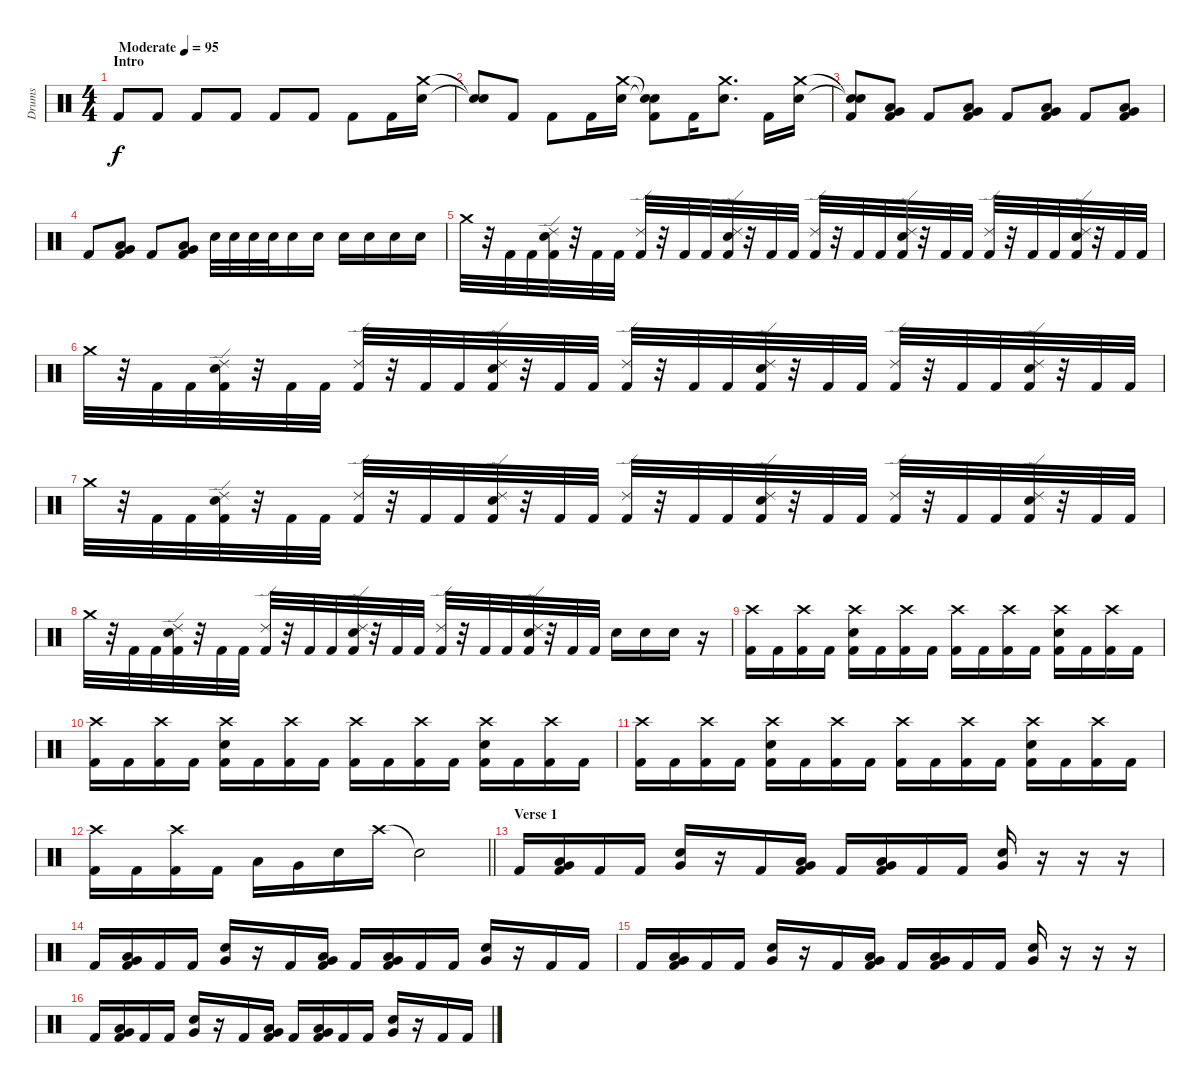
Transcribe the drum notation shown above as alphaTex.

\track ("Drums" "Drums") {instrument percussion}
\staff {score}
\articulation defaults
\ts (4 4)
\section ("" "Intro")
\tempo (95 "Moderate")
\clef neutral
\ks c "Kick (hit) 2".8{dy f} "Kick (hit) 2".8 "Kick (hit) 2".8 "Kick (hit) 2".8 "Kick (hit) 2".8 "Kick (hit) 2".8 "Kick (hit) 2".8 "Kick (hit) 2".16
("Crash medium (hit)" "Electric Snare (hit)").16 |
("Snare (hit)"{t} "Snare (hit)"{t}).8 "Kick (hit) 2".8 "Kick (hit) 2".8 "Kick (hit) 2".16 ("Crash medium (hit)" "Electric Snare (hit)").16 ("Snare (hit)"{t} "Snare (hit)"{t} "Kick (hit) 2").8 "Kick (hit) 2".16 ("Crash medium (hit)" "Electric Snare (hit)").8{d} "Kick (hit) 2".16 ("Crash medium (hit)" "Electric Snare (hit)").16 |
("Snare (hit)"{t} "Snare (hit)"{t} "Kick (hit) 2").8 ("Low Floor Tom (hit)" "Very Low Tom (hit)" "Kick (hit) 2").8 "Kick (hit) 2".8 ("Low Floor Tom (hit)" "Very Low Tom (hit)" "Kick (hit) 2").8 "Kick (hit) 2".8 ("Low Floor Tom (hit)" "Very Low Tom (hit)" "Kick (hit) 2").8 "Kick (hit) 2".8 ("Low Floor Tom (hit)" "Very Low Tom (hit)" "Kick (hit) 2").8 |
"Kick (hit) 2".8 ("Low Floor Tom (hit)" "Very Low Tom (hit)" "Kick (hit) 2").8 "Kick (hit) 2".8 ("Low Floor Tom (hit)" "Very Low Tom (hit)" "Kick (hit) 2").8 "Electric Snare (hit)".32 "Electric Snare (hit)".32 "Electric Snare (hit)".32 "Electric Snare (hit)".32 "Electric Snare (hit)".16 "Electric Snare (hit)".16 "Electric Snare (hit)".16 "Electric Snare (hit)".16 "Electric Snare (hit)".16 "Electric Snare (hit)".16 |
"Crash medium (hit)".32 r.32 "Kick (hit) 2".32 "Kick (hit) 2".32 ("Ride (edge) 2" "Electric Snare (hit)" "Kick (hit) 2").32 r.32 "Kick (hit) 2".32 "Kick (hit) 2".32 ("Ride (edge) 2" "Kick (hit) 2").32 r.32 "Kick (hit) 2".32 "Kick (hit) 2".32 ("Ride (edge) 2" "Electric Snare (hit)" "Kick (hit) 2").32 r.32 "Kick (hit) 2".32 "Kick (hit) 2".32 ("Ride (edge) 2" "Kick (hit) 2").32 r.32 "Kick (hit) 2".32 "Kick (hit) 2".32 ("Ride (edge) 2" "Electric Snare (hit)" "Kick (hit) 2").32 r.32 "Kick (hit) 2".32 "Kick (hit) 2".32 ("Ride (edge) 2" "Kick (hit) 2").32 r.32 "Kick (hit) 2".32 "Kick (hit) 2".32 ("Ride (edge) 2" "Electric Snare (hit)" "Kick (hit) 2").32 r.32 "Kick (hit) 2".32 "Kick (hit) 2".32 |
"Crash medium (hit)".32 r.32 "Kick (hit) 2".32 "Kick (hit) 2".32 ("Ride (edge) 2" "Electric Snare (hit)" "Kick (hit) 2").32 r.32 "Kick (hit) 2".32 "Kick (hit) 2".32 ("Ride (edge) 2" "Kick (hit) 2").32 r.32 "Kick (hit) 2".32 "Kick (hit) 2".32 ("Ride (edge) 2" "Electric Snare (hit)" "Kick (hit) 2").32 r.32 "Kick (hit) 2".32 "Kick (hit) 2".32 ("Ride (edge) 2" "Kick (hit) 2").32 r.32 "Kick (hit) 2".32 "Kick (hit) 2".32 ("Ride (edge) 2" "Electric Snare (hit)" "Kick (hit) 2").32 r.32 "Kick (hit) 2".32 "Kick (hit) 2".32 ("Ride (edge) 2" "Kick (hit) 2").32 r.32 "Kick (hit) 2".32 "Kick (hit) 2".32 ("Ride (edge) 2" "Electric Snare (hit)" "Kick (hit) 2").32 r.32 "Kick (hit) 2".32 "Kick (hit) 2".32 |
"Crash medium (hit)".32 r.32 "Kick (hit) 2".32 "Kick (hit) 2".32 ("Ride (edge) 2" "Electric Snare (hit)" "Kick (hit) 2").32 r.32 "Kick (hit) 2".32 "Kick (hit) 2".32 ("Ride (edge) 2" "Kick (hit) 2").32 r.32 "Kick (hit) 2".32 "Kick (hit) 2".32 ("Ride (edge) 2" "Electric Snare (hit)" "Kick (hit) 2").32 r.32 "Kick (hit) 2".32 "Kick (hit) 2".32 ("Ride (edge) 2" "Kick (hit) 2").32 r.32 "Kick (hit) 2".32 "Kick (hit) 2".32 ("Ride (edge) 2" "Electric Snare (hit)" "Kick (hit) 2").32 r.32 "Kick (hit) 2".32 "Kick (hit) 2".32 ("Ride (edge) 2" "Kick (hit) 2").32 r.32 "Kick (hit) 2".32 "Kick (hit) 2".32 ("Ride (edge) 2" "Electric Snare (hit)" "Kick (hit) 2").32 r.32 "Kick (hit) 2".32 "Kick (hit) 2".32 |
"Crash medium (hit)".32 r.32 "Kick (hit) 2".32 "Kick (hit) 2".32 ("Ride (edge) 2" "Electric Snare (hit)" "Kick (hit) 2").32 r.32 "Kick (hit) 2".32 "Kick (hit) 2".32 ("Ride (edge) 2" "Kick (hit) 2").32 r.32 "Kick (hit) 2".32 "Kick (hit) 2".32 ("Ride (edge) 2" "Electric Snare (hit)" "Kick (hit) 2").32 r.32 "Kick (hit) 2".32 "Kick (hit) 2".32 ("Ride (edge) 2" "Kick (hit) 2").32 r.32 "Kick (hit) 2".32 "Kick (hit) 2".32 ("Ride (edge) 2" "Electric Snare (hit)" "Kick (hit) 2").32 r.32 "Kick (hit) 2".32 "Kick (hit) 2".32 "Electric Snare (hit)".16 "Electric Snare (hit)".16 "Electric Snare (hit)".16 r.16 |
("Crash high (hit)" "Kick (hit) 2").16 "Kick (hit) 2".16 ("Crash high (hit)" "Kick (hit) 2").16 "Kick (hit) 2".16 ("Crash high (hit)" "Electric Snare (hit)" "Kick (hit) 2").16 "Kick (hit) 2".16 ("Crash high (hit)" "Kick (hit) 2").16 "Kick (hit) 2".16 ("Crash high (hit)" "Kick (hit) 2").16 "Kick (hit) 2".16 ("Crash high (hit)" "Kick (hit) 2").16 "Kick (hit) 2".16 ("Crash high (hit)" "Electric Snare (hit)" "Kick (hit) 2").16 "Kick (hit) 2".16 ("Crash high (hit)" "Kick (hit) 2").16 "Kick (hit) 2".16 |
("Crash high (hit)" "Kick (hit) 2").16 "Kick (hit) 2".16 ("Crash high (hit)" "Kick (hit) 2").16 "Kick (hit) 2".16 ("Crash high (hit)" "Electric Snare (hit)" "Kick (hit) 2").16 "Kick (hit) 2".16 ("Crash high (hit)" "Kick (hit) 2").16 "Kick (hit) 2".16 ("Crash high (hit)" "Kick (hit) 2").16 "Kick (hit) 2".16 ("Crash high (hit)" "Kick (hit) 2").16 "Kick (hit) 2".16 ("Crash high (hit)" "Electric Snare (hit)" "Kick (hit) 2").16 "Kick (hit) 2".16 ("Crash high (hit)" "Kick (hit) 2").16 "Kick (hit) 2".16 |
("Crash high (hit)" "Kick (hit) 2").16 "Kick (hit) 2".16 ("Crash high (hit)" "Kick (hit) 2").16 "Kick (hit) 2".16 ("Crash high (hit)" "Electric Snare (hit)" "Kick (hit) 2").16 "Kick (hit) 2".16 ("Crash high (hit)" "Kick (hit) 2").16 "Kick (hit) 2".16 ("Crash high (hit)" "Kick (hit) 2").16 "Kick (hit) 2".16 ("Crash high (hit)" "Kick (hit) 2").16 "Kick (hit) 2".16 ("Crash high (hit)" "Electric Snare (hit)" "Kick (hit) 2").16 "Kick (hit) 2".16 ("Crash high (hit)" "Kick (hit) 2").16 "Kick (hit) 2".16 |
\barLineRight lightlight
("Crash high (hit)" "Kick (hit) 2").16 "Kick (hit) 2".16 ("Crash high (hit)" "Kick (hit) 2").16 "Kick (hit) 2".16 "Low Tom (hit)".16 "Very Low Tom (hit)".16 "Electric Snare (hit)".16 "Crash high (hit)".16 "Snare (hit)"{t}.2 |
\section ("" "Verse 1")
"Kick (hit) 2".16 ("Low Tom (hit)" "Very Low Tom (hit)" "Kick (hit) 2").16 "Kick (hit) 2".16 "Kick (hit) 2".16 ("Electric Snare (hit)" "Very Low Tom (hit)").16 r.16 "Kick (hit) 2".16 ("Low Tom (hit)" "Very Low Tom (hit)" "Kick (hit) 2").16 "Kick (hit) 2".16 ("Very Low Tom (hit)" "Low Floor Tom (hit)" "Kick (hit) 2").16 "Kick (hit) 2".16 "Kick (hit) 2".16 ("Electric Snare (hit)" "Very Low Tom (hit)").16 r.16 r.16 r.16 |
"Kick (hit) 2".16 ("Low Tom (hit)" "Very Low Tom (hit)" "Kick (hit) 2").16 "Kick (hit) 2".16 "Kick (hit) 2".16 ("Electric Snare (hit)" "Very Low Tom (hit)").16 r.16 "Kick (hit) 2".16 ("Low Tom (hit)" "Very Low Tom (hit)" "Kick (hit) 2").16 "Kick (hit) 2".16 ("Very Low Tom (hit)" "Low Floor Tom (hit)" "Kick (hit) 2").16 "Kick (hit) 2".16 "Kick (hit) 2".16 ("Electric Snare (hit)" "Very Low Tom (hit)").16 r.16 "Kick (hit) 2".16 "Kick (hit) 2".16 |
"Kick (hit) 2".16 ("Low Tom (hit)" "Very Low Tom (hit)" "Kick (hit) 2").16 "Kick (hit) 2".16 "Kick (hit) 2".16 ("Electric Snare (hit)" "Very Low Tom (hit)").16 r.16 "Kick (hit) 2".16 ("Low Tom (hit)" "Very Low Tom (hit)" "Kick (hit) 2").16 "Kick (hit) 2".16 ("Very Low Tom (hit)" "Low Floor Tom (hit)" "Kick (hit) 2").16 "Kick (hit) 2".16 "Kick (hit) 2".16 ("Electric Snare (hit)" "Very Low Tom (hit)").16 r.16 r.16 r.16 |
"Kick (hit) 2".16 ("Low Tom (hit)" "Very Low Tom (hit)" "Kick (hit) 2").16 "Kick (hit) 2".16 "Kick (hit) 2".16 ("Electric Snare (hit)" "Very Low Tom (hit)").16 r.16 "Kick (hit) 2".16 ("Low Tom (hit)" "Very Low Tom (hit)" "Kick (hit) 2").16 "Kick (hit) 2".16 ("Very Low Tom (hit)" "Low Floor Tom (hit)" "Kick (hit) 2").16 "Kick (hit) 2".16 "Kick (hit) 2".16 ("Electric Snare (hit)" "Very Low Tom (hit)").16 r.16 "Kick (hit) 2".16 "Kick (hit) 2".16
